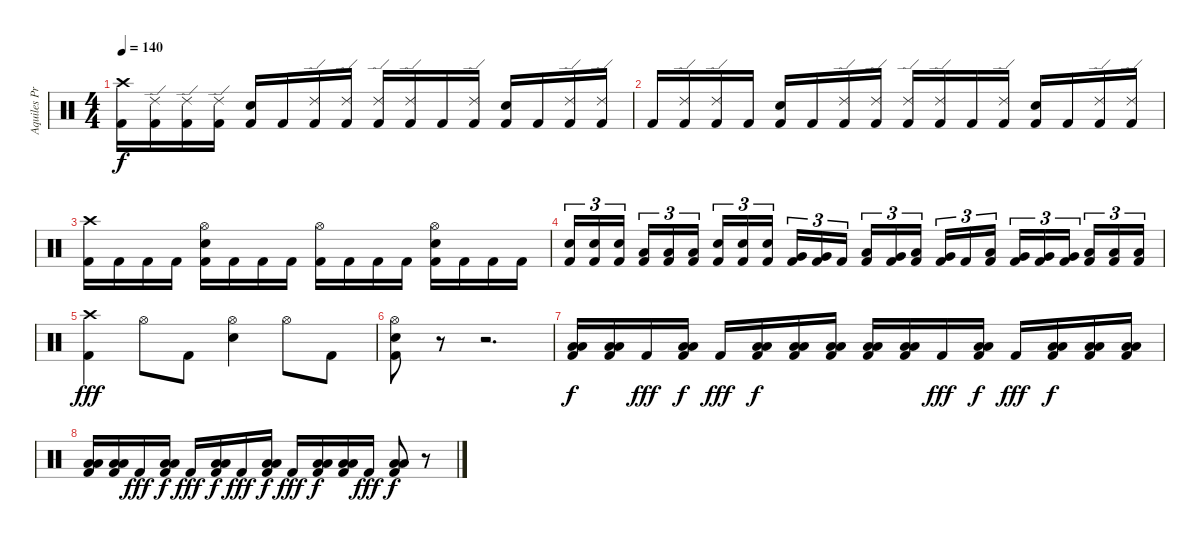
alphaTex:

\track ("Aquiles Priester" "Aquiles Pr") {instrument percussion}
\staff {score}
\articulation defaults
\ts (4 4)
\tempo 140
\clef neutral
\ks c
("Crash high (hit)" "Kick (hit) 2").16{dy f} ("Ride (edge) 2" "Kick (hit) 2").16 ("Ride (edge) 2" "Kick (hit) 2").16 ("Ride (edge) 2" "Kick (hit) 2").16 ("Electric Snare (hit)" "Kick (hit) 2").16 "Kick (hit) 2".16 ("Ride (edge) 2" "Kick (hit) 2").16 ("Ride (edge) 2" "Kick (hit) 2").16 ("Ride (edge) 2" "Kick (hit) 2").16 ("Ride (edge) 2" "Kick (hit) 2").16 "Kick (hit) 2".16 ("Ride (edge) 2" "Kick (hit) 2").16 ("Electric Snare (hit)" "Kick (hit) 2").16 "Kick (hit) 2".16 ("Ride (edge) 2" "Kick (hit) 2").16 ("Ride (edge) 2" "Kick (hit) 2").16 |
"Kick (hit) 2".16 ("Ride (edge) 2" "Kick (hit) 2").16 ("Ride (edge) 2" "Kick (hit) 2").16 "Kick (hit) 2".16 ("Electric Snare (hit)" "Kick (hit) 2").16 "Kick (hit) 2".16 ("Ride (edge) 2" "Kick (hit) 2").16 ("Ride (edge) 2" "Kick (hit) 2").16 ("Ride (edge) 2" "Kick (hit) 2").16 ("Ride (edge) 2" "Kick (hit) 2").16 "Kick (hit) 2".16 ("Ride (edge) 2" "Kick (hit) 2").16 ("Electric Snare (hit)" "Kick (hit) 2").16 "Kick (hit) 2".16 ("Ride (edge) 2" "Kick (hit) 2").16 ("Ride (edge) 2" "Kick (hit) 2").16 |
("Crash high (hit)" "Kick (hit) 2").16 "Kick (hit) 2".16 "Kick (hit) 2".16 "Kick (hit) 2".16 ("Hi-Hat (open)" "Electric Snare (hit)" "Kick (hit) 2").16 "Kick (hit) 2".16 "Kick (hit) 2".16 "Kick (hit) 2".16 ("Hi-Hat (open)" "Kick (hit) 2").16 "Kick (hit) 2".16 "Kick (hit) 2".16 "Kick (hit) 2".16 ("Hi-Hat (open)" "Electric Snare (hit)" "Kick (hit) 2").16 "Kick (hit) 2".16 "Kick (hit) 2".16 "Kick (hit) 2".16 |
("Electric Snare (hit)" "Kick (hit) 2").16{tu (3 2)} ("Electric Snare (hit)" "Kick (hit) 2").16{tu (3 2)} ("Electric Snare (hit)" "Kick (hit) 2").16{tu (3 2)} ("Low Tom (hit)" "Kick (hit) 2").16{tu (3 2)} ("Low Tom (hit)" "Kick (hit) 2").16{tu (3 2)} ("Low Tom (hit)" "Kick (hit) 2").16{tu (3 2)} ("Electric Snare (hit)" "Kick (hit) 2").16{tu (3 2)} ("Electric Snare (hit)" "Kick (hit) 2").16{tu (3 2)} ("Electric Snare (hit)" "Kick (hit) 2").16{tu (3 2)} ("Very Low Tom (hit)" "Kick (hit) 2").16{tu (3 2)} ("Very Low Tom (hit)" "Kick (hit) 2").16{tu (3 2)} "Kick (hit) 2".16{tu (3 2)} ("Low Tom (hit)" "Kick (hit) 2").16{tu (3 2)} ("Very Low Tom (hit)" "Kick (hit) 2").16{tu (3 2)} ("Low Floor Tom (hit)" "Kick (hit) 2").16{tu (3 2)} ("Very Low Tom (hit)" "Kick (hit) 2").16{tu (3 2)} "Kick (hit) 2".16{tu (3 2)} ("Low Tom (hit)" "Kick (hit) 2").16{tu (3 2)} ("Very Low Tom (hit)" "Kick (hit) 2").16{tu (3 2)} ("Very Low Tom (hit)" "Kick (hit) 2").16{tu (3 2)} ("Very Low Tom (hit)" "Kick (hit) 2").16{tu (3 2)} ("Low Floor Tom (hit)" "Kick (hit) 2").16{tu (3 2)} ("Low Floor Tom (hit)" "Kick (hit) 2").16{tu (3 2)} ("Low Floor Tom (hit)" "Kick (hit) 2").16{tu (3 2)} |
("Crash high (hit)" "Kick (hit) 2").4{dy fff} "Hi-Hat (open)".8 "Kick (hit) 2".8 ("Hi-Hat (open)" "Electric Snare (hit)").4 "Hi-Hat (open)".8 "Kick (hit) 2".8 |
("Hi-Hat (open)" "Electric Snare (hit)" "Kick (hit) 2").8 r.8 r.2{d} |
("Low Floor Tom (hit)" "Low Tom (hit)" "Kick (hit) 2").16{dy f} ("Low Floor Tom (hit)" "Low Tom (hit)" "Kick (hit) 2").16 "Kick (hit) 2".16{dy fff} ("Low Floor Tom (hit)" "Low Tom (hit)" "Kick (hit) 2").16{dy f} "Kick (hit) 2".16{dy fff} ("Low Floor Tom (hit)" "Low Tom (hit)" "Kick (hit) 2").16{dy f} ("Low Floor Tom (hit)" "Low Tom (hit)" "Kick (hit) 2").16 ("Low Floor Tom (hit)" "Low Tom (hit)" "Kick (hit) 2").16 ("Low Floor Tom (hit)" "Low Tom (hit)" "Kick (hit) 2").16 ("Low Floor Tom (hit)" "Low Tom (hit)" "Kick (hit) 2").16 "Kick (hit) 2".16{dy fff} ("Low Floor Tom (hit)" "Low Tom (hit)" "Kick (hit) 2").16{dy f} "Kick (hit) 2".16{dy fff} ("Low Floor Tom (hit)" "Low Tom (hit)" "Kick (hit) 2").16{dy f} ("Low Floor Tom (hit)" "Low Tom (hit)" "Kick (hit) 2").16 ("Low Floor Tom (hit)" "Low Tom (hit)" "Kick (hit) 2").16 |
("Low Floor Tom (hit)" "Low Tom (hit)" "Kick (hit) 2").16 ("Low Floor Tom (hit)" "Low Tom (hit)" "Kick (hit) 2").16 "Kick (hit) 2".16{dy fff} ("Low Floor Tom (hit)" "Low Tom (hit)" "Kick (hit) 2").16{dy f} "Kick (hit) 2".16{dy fff} ("Low Floor Tom (hit)" "Low Tom (hit)" "Kick (hit) 2").16{dy f} "Kick (hit) 2".16{dy fff} ("Low Floor Tom (hit)" "Low Tom (hit)" "Kick (hit) 2").16{dy f} "Kick (hit) 2".16{dy fff} ("Low Floor Tom (hit)" "Low Tom (hit)" "Kick (hit) 2").16{dy f} ("Low Floor Tom (hit)" "Low Tom (hit)" "Kick (hit) 2").16 "Kick (hit) 2".16{dy fff} ("Low Floor Tom (hit)" "Low Tom (hit)" "Kick (hit) 2").8{dy f} r.8
